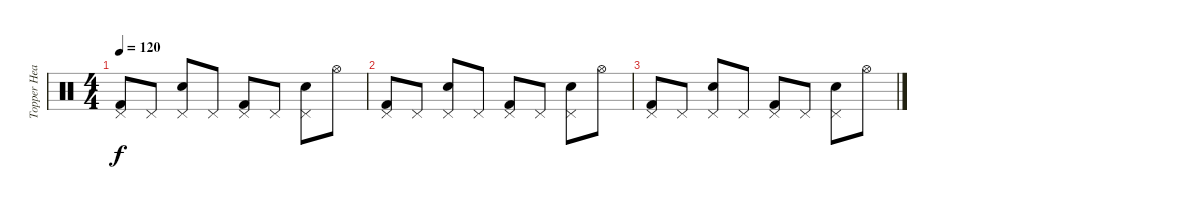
\track ("Topper Headon" "Topper Hea") {instrument percussion}
\staff {score}
\articulation defaults
\ts (4 4)
\tempo 120
\clef neutral
\ks c
("Pedal Hi-Hat (hit)" "Kick (hit) 2").8{dy f} "Pedal Hi-Hat (hit)".8 ("Pedal Hi-Hat (hit)" "Electric Snare (hit)").8 "Pedal Hi-Hat (hit)".8 ("Pedal Hi-Hat (hit)" "Kick (hit) 2").8 "Pedal Hi-Hat (hit)".8 ("Pedal Hi-Hat (hit)" "Electric Snare (hit)").8 "Hi-Hat (open)".8 |
("Pedal Hi-Hat (hit)" "Kick (hit) 2").8 "Pedal Hi-Hat (hit)".8 ("Pedal Hi-Hat (hit)" "Electric Snare (hit)").8 "Pedal Hi-Hat (hit)".8 ("Pedal Hi-Hat (hit)" "Kick (hit) 2").8 "Pedal Hi-Hat (hit)".8 ("Pedal Hi-Hat (hit)" "Electric Snare (hit)").8 "Hi-Hat (open)".8 |
("Pedal Hi-Hat (hit)" "Kick (hit) 2").8 "Pedal Hi-Hat (hit)".8 ("Pedal Hi-Hat (hit)" "Electric Snare (hit)").8 "Pedal Hi-Hat (hit)".8 ("Pedal Hi-Hat (hit)" "Kick (hit) 2").8 "Pedal Hi-Hat (hit)".8 ("Pedal Hi-Hat (hit)" "Electric Snare (hit)").8 "Hi-Hat (open)".8
